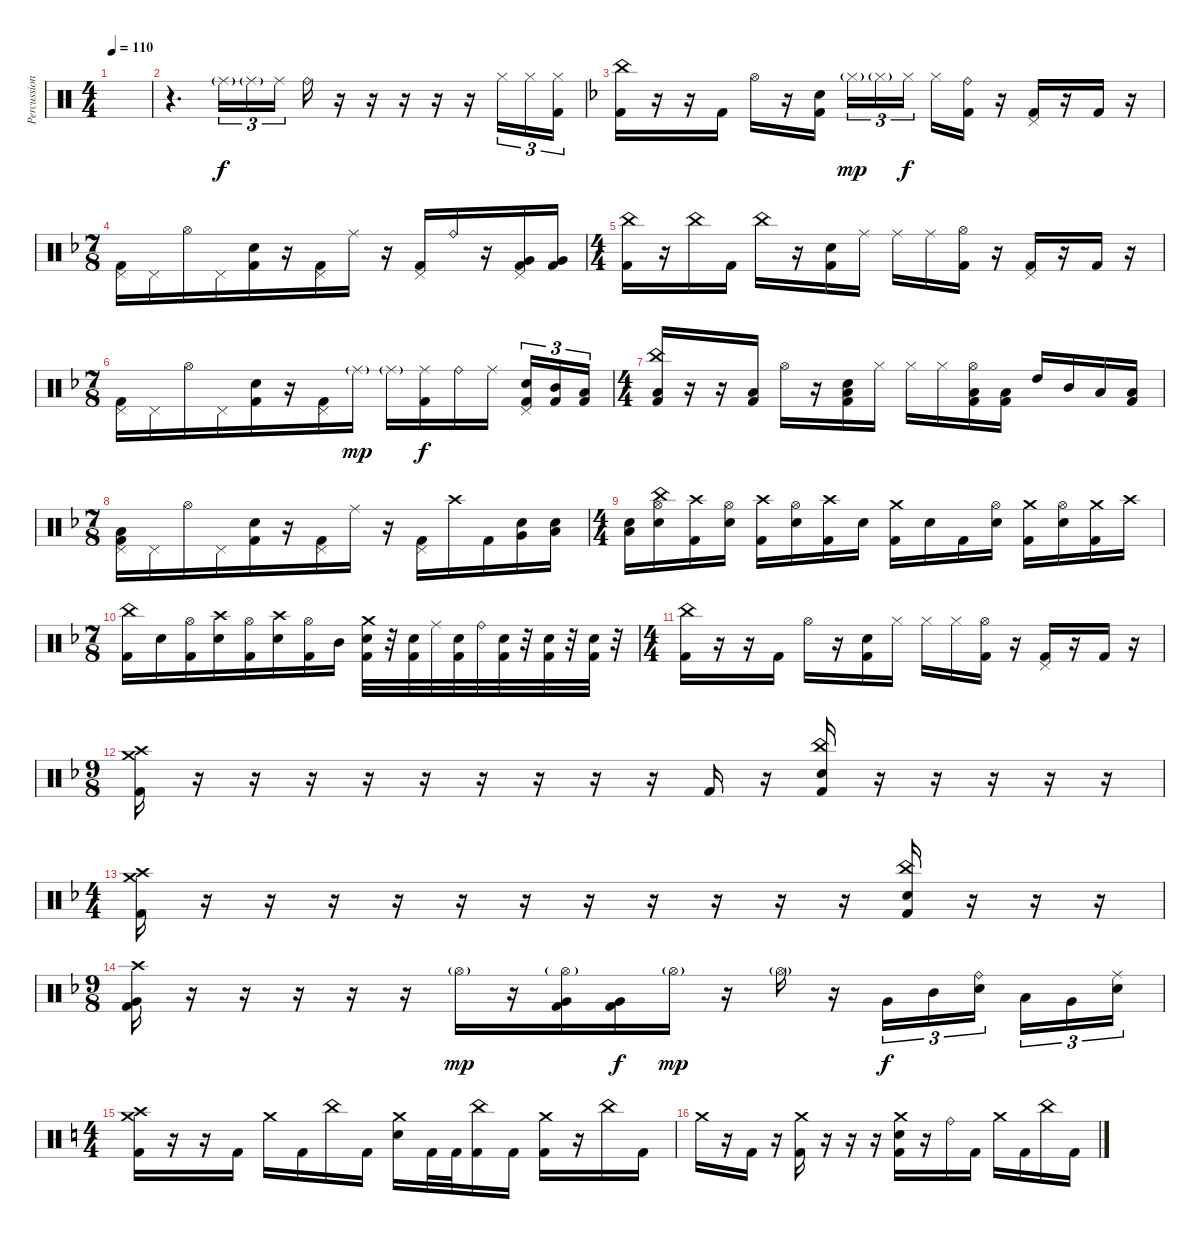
\track ("Percussion" "Percussion") {instrument percussion}
\staff {score}
\articulation defaults
\ts (4 4)
\tempo 110
\clef neutral
\ks c
|
r.4{d} "Ride (middle)"{g}.16{tu (3 2)} "Ride (middle)"{g}.16{tu (3 2)} "Ride (middle)".16{tu (3 2) dy f} "Ride (bell)".16 r.16 r.16 r.16 r.16 r.16 "Hi-Hat (closed)".16{tu (3 2)} "Hi-Hat (closed)".16{tu (3 2)} ("Kick (hit) 2" "Hi-Hat (closed)").16{tu (3 2)} |
\ks dminor
("Kick (hit) 2" "China (hit)").16 r.16 r.16 "Kick (hit) 2".16 "Hi-Hat (open)".16 r.16 ("Kick (hit) 2" "Electric Snare (hit)").16 "Hi-Hat (closed)"{g}.16{tu (3 2) dy mp} "Hi-Hat (closed)"{g}.16{tu (3 2)} "Hi-Hat (closed)".16{tu (3 2) dy f} "Hi-Hat (closed)".16 ("Kick (hit) 2" "Ride (bell)").16 r.16 ("Kick (hit) 2" "Pedal Hi-Hat (hit)").16 r.16 "Kick (hit) 2".16 r.16 |
\ts (7 8)
("Kick (hit) 2" "Pedal Hi-Hat (hit)").16 "Pedal Hi-Hat (hit)".16 "Hi-Hat (open)".16 "Pedal Hi-Hat (hit)".16 ("Kick (hit) 2" "Electric Snare (hit)").16 r.16 ("Kick (hit) 2" "Pedal Hi-Hat (hit)").16 "Ride (middle)".16 r.16 ("Kick (hit) 2" "Pedal Hi-Hat (hit)").16 "Ride (bell)".16 r.16 ("Kick (hit) 2" "Very Low Tom (hit)" "Pedal Hi-Hat (hit)").16 ("Kick (hit) 2" "Very Low Tom (hit)").16 |
\ts (4 4)
("Kick (hit) 2" "China (hit)").16 r.16 "China (hit)".16 "Kick (hit) 2".16 "China (hit)".16 r.16 ("Kick (hit) 2" "Electric Snare (hit)").16 "Ride (middle)".16 "Ride (middle)".16 "Ride (middle)".16 ("Kick (hit) 2" "Hi-Hat (open)").16 r.16 ("Kick (hit) 2" "Pedal Hi-Hat (hit)").16 r.16 "Kick (hit) 2".16 r.16 |
\ts (7 8)
("Kick (hit) 2" "Pedal Hi-Hat (hit)").16 "Pedal Hi-Hat (hit)".16 "Hi-Hat (open)".16 "Pedal Hi-Hat (hit)".16 ("Kick (hit) 2" "Electric Snare (hit)").16 r.16 ("Kick (hit) 2" "Pedal Hi-Hat (hit)").16 "Ride (middle)"{g}.16{dy mp} "Ride (middle)"{g}.16 ("Kick (hit) 2" "Ride (middle)").16{dy f} "Ride (bell)".16 "Ride (middle)".16 ("Kick (hit) 2" "Electric Snare (hit)" "Pedal Hi-Hat (hit)").16{tu (3 2)} ("Kick (hit) 2" "Mid Tom (hit)").16{tu (3 2)} ("Kick (hit) 2" "Low Tom (hit)").16{tu (3 2)} |
\ts (4 4)
("Kick (hit) 2" "Low Floor Tom (hit)" "China (hit)").16 r.16 r.16 ("Kick (hit) 2" "Low Floor Tom (hit)").16 "Hi-Hat (open)".16 r.16 ("Kick (hit) 2" "Low Floor Tom (hit)" "Electric Snare (hit)").16 "Hi-Hat (closed)".16 "Hi-Hat (closed)".16 "Hi-Hat (closed)".16 ("Kick (hit) 2" "Low Floor Tom (hit)" "Hi-Hat (open)").16 ("Kick (hit) 2" "Low Floor Tom (hit)").16 "High Tom (hit)".16 "Mid Tom (hit)".16 "Low Tom (hit)".16 ("Kick (hit) 2" "Low Floor Tom (hit)").16 |
\ts (7 8)
("Kick (hit) 2" "Low Floor Tom (hit)" "Pedal Hi-Hat (hit)").16 "Pedal Hi-Hat (hit)".16 "Hi-Hat (open)".16 "Pedal Hi-Hat (hit)".16 ("Kick (hit) 2" "Electric Snare (hit)").16 r.16 ("Kick (hit) 2" "Pedal Hi-Hat (hit)").16 "Ride (middle)".16 r.16 ("Kick (hit) 2" "Pedal Hi-Hat (hit)").16 "Crash high (hit)".16 "Kick (hit) 2".16 ("Electric Snare (hit)" "Very Low Tom (hit)").16 ("Electric Snare (hit)" "Low Floor Tom (hit)").16 |
\ts (4 4)
("Electric Snare (hit)" "Low Floor Tom (hit)").16 ("China (hit)" "Electric Snare (hit)" "Hi-Hat (open)").16 ("Kick (hit) 2" "Crash high (hit)").16 ("Electric Snare (hit)" "Hi-Hat (open)").16 ("Kick (hit) 2" "Crash high (hit)").16 ("Electric Snare (hit)" "Hi-Hat (open)").16 ("Kick (hit) 2" "Crash high (hit)").16 "Electric Snare (hit)".16 ("Kick (hit) 2" "Crash medium (hit)").16 "Electric Snare (hit)".16 "Kick (hit) 2".16 ("Electric Snare (hit)" "Hi-Hat (open)").16 ("Kick (hit) 2" "Crash medium (hit)").16 ("Electric Snare (hit)" "Hi-Hat (open)").16 ("Kick (hit) 2" "Crash medium (hit)").16 "Crash high (hit)".16 |
\ts (7 8)
("Kick (hit) 2" "China (hit)").16 "Electric Snare (hit)".16 ("Kick (hit) 2" "Hi-Hat (open)").16 ("Electric Snare (hit)" "Crash high (hit)").16 ("Kick (hit) 2" "Hi-Hat (open)").16 ("Electric Snare (hit)" "Crash high (hit)").16 ("Kick (hit) 2" "Hi-Hat (open)").16 "Mid Tom (hit)".16 ("Kick (hit) 2" "Electric Snare (hit)" "Crash medium (hit)").32 r.32 ("Kick (hit) 2" "Electric Snare (hit)").32 "Ride (middle)".32 ("Kick (hit) 2" "Electric Snare (hit)").32 "Ride (bell)".32 ("Kick (hit) 2" "Electric Snare (hit)").32 r.32 ("Kick (hit) 2" "Electric Snare (hit)").32 r.32 ("Kick (hit) 2" "Electric Snare (hit)").32 r.32 |
\ts (4 4)
("Kick (hit) 2" "China (hit)").16 r.16 r.16 "Kick (hit) 2".16 "Hi-Hat (open)".16 r.16 ("Kick (hit) 2" "Electric Snare (hit)").16 "Hi-Hat (closed)".16 "Hi-Hat (closed)".16 "Hi-Hat (closed)".16 ("Kick (hit) 2" "Hi-Hat (open)").16 r.16 ("Kick (hit) 2" "Pedal Hi-Hat (hit)").16 r.16 "Kick (hit) 2".16 r.16 |
\ts (9 8)
("Kick (hit) 2" "Crash medium (hit)" "Crash high (hit)").16 r.16 r.16 r.16 r.16 r.16 r.16 r.16 r.16 r.16 "Kick (hit) 2".16 r.16 ("Kick (hit) 2" "Electric Snare (hit)" "China (hit)").16 r.16 r.16 r.16 r.16 r.16 |
\ts (4 4)
("Kick (hit) 2" "Crash high (hit)" "Crash medium (hit)").16 r.16 r.16 r.16 r.16 r.16 r.16 r.16 r.16 r.16 r.16 r.16 ("Kick (hit) 2" "Electric Snare (hit)" "China (hit)").16 r.16 r.16 r.16 |
\ts (9 8)
("Kick (hit) 2" "Very Low Tom (hit)" "Crash high (hit)").16 r.16 r.16 r.16 r.16 r.16 "Hi-Hat (open)"{g}.16{dy mp} r.16 ("Kick (hit) 2" "Very Low Tom (hit)" "Hi-Hat (open)"{g}).16 ("Kick (hit) 2" "Very Low Tom (hit)").16{dy f} "Hi-Hat (open)"{g}.16{dy mp} r.16 "Hi-Hat (open)"{g}.16 r.16 "Very Low Tom (hit)".16{tu (3 2) dy f} "Mid Tom (hit)".16{tu (3 2)} ("Electric Snare (hit)" "Ride (bell)").16{tu (3 2)} "Low Floor Tom (hit)".16{tu (3 2)} "Very Low Tom (hit)".16{tu (3 2)} ("Electric Snare (hit)" "Ride (middle)").16{tu (3 2)} |
\ts (4 4)
\ks c
("Kick (hit) 2" "Crash high (hit)" "Crash medium (hit)").16 r.16 r.16 "Kick (hit) 2".16 "Crash medium (hit)".16 "Kick (hit) 2".16 "China (hit)".16 "Kick (hit) 2".16 ("Crash medium (hit)" "Electric Snare (hit)").16 "Kick (hit) 2".32 "Kick (hit) 2".32 ("Kick (hit) 2" "China (hit)").16 "Kick (hit) 2".16 ("Kick (hit) 2" "Crash medium (hit)").16 r.16 "China (hit)".16 "Kick (hit) 2".16 |
"Crash medium (hit)".16 r.16 "Kick (hit) 2".16 r.16 ("Kick (hit) 2" "Crash medium (hit)").16 r.16 r.16 r.16 ("Kick (hit) 2" "Crash medium (hit)" "Electric Snare (hit)").16 r.16 "Ride (bell)".16 "Kick (hit) 2".16 "Crash medium (hit)".16 "Kick (hit) 2".16 "China (hit)".16 "Kick (hit) 2".16
